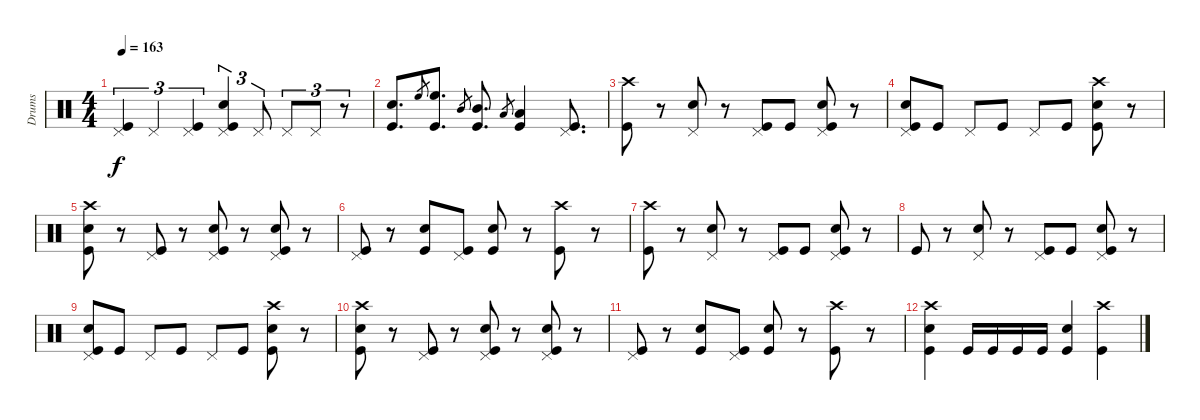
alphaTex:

\track ("Drums" "Drums") {instrument percussion}
\staff {score}
\articulation defaults
\ts (4 4)
\tempo 163
\clef neutral
\ks c
("Pedal Hi-Hat (hit)" "Kick (hit)").4{tu (3 2) dy f} "Pedal Hi-Hat (hit)".4{tu (3 2)} ("Pedal Hi-Hat (hit)" "Kick (hit)").4{tu (3 2)} ("Pedal Hi-Hat (hit)" "Snare (hit) 2" "Kick (hit)").4{tu (3 2)} "Pedal Hi-Hat (hit)".8{tu (3 2)} "Pedal Hi-Hat (hit)".8{tu (3 2)} "Pedal Hi-Hat (hit)".8{tu (3 2)} r.8{tu (3 2)} |
("Snare (hit) 2" "Kick (hit)").8{d} "High Floor Tom (hit)".8{gr} ("High Floor Tom (hit)" "Kick (hit)").8{d} "Mid Tom (hit)".8{gr} ("Mid Tom (hit)" "Kick (hit)").8{d} "Low Tom (hit)".8{gr} ("Low Tom (hit)" "Kick (hit)").4 ("Pedal Hi-Hat (hit)" "Kick (hit)").8{d} |
("Crash high (hit)" "Kick (hit)").8 r.8 ("Pedal Hi-Hat (hit)" "Snare (hit) 2").8 r.8 ("Pedal Hi-Hat (hit)" "Kick (hit)").8 "Kick (hit)".8 ("Pedal Hi-Hat (hit)" "Snare (hit) 2" "Kick (hit)").8 r.8 |
("Pedal Hi-Hat (hit)" "Snare (hit) 2" "Kick (hit)").8 "Kick (hit)".8 "Pedal Hi-Hat (hit)".8 "Kick (hit)".8 "Pedal Hi-Hat (hit)".8 "Kick (hit)".8 ("Crash high (hit)" "Snare (hit) 2" "Kick (hit)").8 r.8 |
("Crash high (hit)" "Snare (hit) 2" "Kick (hit)").8 r.8 ("Pedal Hi-Hat (hit)" "Kick (hit)").8 r.8 ("Pedal Hi-Hat (hit)" "Snare (hit) 2" "Kick (hit)").8 r.8 ("Pedal Hi-Hat (hit)" "Snare (hit) 2" "Kick (hit)").8 r.8 |
("Pedal Hi-Hat (hit)" "Kick (hit)").8 r.8 ("Snare (hit) 2" "Kick (hit)").8 ("Pedal Hi-Hat (hit)" "Kick (hit)").8 ("Snare (hit) 2" "Kick (hit)").8 r.8 ("Crash high (hit)" "Kick (hit)").8 r.8 |
("Crash high (hit)" "Kick (hit)").8 r.8 ("Pedal Hi-Hat (hit)" "Snare (hit) 2").8 r.8 ("Pedal Hi-Hat (hit)" "Kick (hit)").8 "Kick (hit)".8 ("Pedal Hi-Hat (hit)" "Snare (hit) 2" "Kick (hit)").8 r.8 |
"Kick (hit)".8 r.8 ("Pedal Hi-Hat (hit)" "Snare (hit) 2").8 r.8 ("Pedal Hi-Hat (hit)" "Kick (hit)").8 "Kick (hit)".8 ("Pedal Hi-Hat (hit)" "Snare (hit) 2" "Kick (hit)").8 r.8 |
("Pedal Hi-Hat (hit)" "Snare (hit) 2" "Kick (hit)").8 "Kick (hit)".8 "Pedal Hi-Hat (hit)".8 "Kick (hit)".8 "Pedal Hi-Hat (hit)".8 "Kick (hit)".8 ("Crash high (hit)" "Snare (hit) 2" "Kick (hit)").8 r.8 |
("Crash high (hit)" "Snare (hit) 2" "Kick (hit)").8 r.8 ("Pedal Hi-Hat (hit)" "Kick (hit)").8 r.8 ("Pedal Hi-Hat (hit)" "Snare (hit) 2" "Kick (hit)").8 r.8 ("Pedal Hi-Hat (hit)" "Snare (hit) 2" "Kick (hit)").8 r.8 |
("Pedal Hi-Hat (hit)" "Kick (hit)").8 r.8 ("Snare (hit) 2" "Kick (hit)").8 ("Pedal Hi-Hat (hit)" "Kick (hit)").8 ("Snare (hit) 2" "Kick (hit)").8 r.8 ("Crash high (hit)" "Kick (hit)").8 r.8 |
("Crash high (hit)" "Snare (hit) 2" "Kick (hit)").4 "Kick (hit)".16 "Kick (hit)".16 "Kick (hit)".16 "Kick (hit)".16 ("Snare (hit) 2" "Kick (hit)").4 ("Crash high (hit)" "Kick (hit)").4
